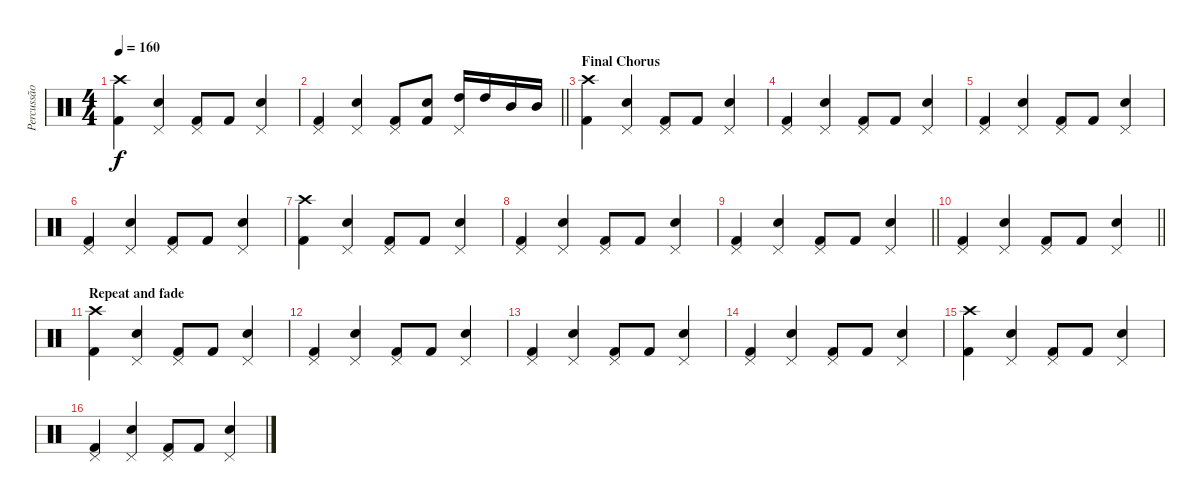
\track ("Percussão" "Percussão") {instrument percussion}
\staff {score}
\articulation defaults
\ts (4 4)
\tempo 160
\clef neutral
\ks c
("Crash high (hit)" "Kick (hit) 2").4{dy f} ("Pedal Hi-Hat (hit)" "Snare (hit) 2").4 ("Pedal Hi-Hat (hit)" "Kick (hit) 2").8 "Kick (hit) 2".8 ("Pedal Hi-Hat (hit)" "Snare (hit) 2").4 |
\barLineRight lightlight
("Pedal Hi-Hat (hit)" "Kick (hit) 2").4 ("Pedal Hi-Hat (hit)" "Snare (hit) 2").4 ("Pedal Hi-Hat (hit)" "Kick (hit) 2").8 ("Snare (hit) 2" "Kick (hit) 2").8 ("Pedal Hi-Hat (hit)" "High Tom (hit)").16 "High Tom (hit)".16 "Mid Tom (hit)".16 "Mid Tom (hit)".16 |
\section ("" "Final Chorus")
("Crash high (hit)" "Kick (hit) 2").4 ("Pedal Hi-Hat (hit)" "Snare (hit) 2").4 ("Pedal Hi-Hat (hit)" "Kick (hit) 2").8 "Kick (hit) 2".8 ("Pedal Hi-Hat (hit)" "Snare (hit) 2").4 |
("Pedal Hi-Hat (hit)" "Kick (hit) 2").4 ("Pedal Hi-Hat (hit)" "Snare (hit) 2").4 ("Pedal Hi-Hat (hit)" "Kick (hit) 2").8 "Kick (hit) 2".8 ("Pedal Hi-Hat (hit)" "Snare (hit) 2").4 |
("Pedal Hi-Hat (hit)" "Kick (hit) 2").4 ("Pedal Hi-Hat (hit)" "Snare (hit) 2").4 ("Pedal Hi-Hat (hit)" "Kick (hit) 2").8 "Kick (hit) 2".8 ("Pedal Hi-Hat (hit)" "Snare (hit) 2").4 |
("Pedal Hi-Hat (hit)" "Kick (hit) 2").4 ("Pedal Hi-Hat (hit)" "Snare (hit) 2").4 ("Pedal Hi-Hat (hit)" "Kick (hit) 2").8 "Kick (hit) 2".8 ("Pedal Hi-Hat (hit)" "Snare (hit) 2").4 |
("Crash high (hit)" "Kick (hit) 2").4 ("Pedal Hi-Hat (hit)" "Snare (hit) 2").4 ("Pedal Hi-Hat (hit)" "Kick (hit) 2").8 "Kick (hit) 2".8 ("Pedal Hi-Hat (hit)" "Snare (hit) 2").4 |
("Pedal Hi-Hat (hit)" "Kick (hit) 2").4 ("Pedal Hi-Hat (hit)" "Snare (hit) 2").4 ("Pedal Hi-Hat (hit)" "Kick (hit) 2").8 "Kick (hit) 2".8 ("Pedal Hi-Hat (hit)" "Snare (hit) 2").4 |
\barLineRight lightlight
("Pedal Hi-Hat (hit)" "Kick (hit) 2").4 ("Pedal Hi-Hat (hit)" "Snare (hit) 2").4 ("Pedal Hi-Hat (hit)" "Kick (hit) 2").8 "Kick (hit) 2".8 ("Pedal Hi-Hat (hit)" "Snare (hit) 2").4 |
\barLineRight lightlight
("Pedal Hi-Hat (hit)" "Kick (hit) 2").4 ("Pedal Hi-Hat (hit)" "Snare (hit) 2").4 ("Pedal Hi-Hat (hit)" "Kick (hit) 2").8 "Kick (hit) 2".8 ("Pedal Hi-Hat (hit)" "Snare (hit) 2").4 |
\section ("" "Repeat and fade")
("Crash high (hit)" "Kick (hit) 2").4 ("Pedal Hi-Hat (hit)" "Snare (hit) 2").4 ("Pedal Hi-Hat (hit)" "Kick (hit) 2").8 "Kick (hit) 2".8 ("Pedal Hi-Hat (hit)" "Snare (hit) 2").4 |
("Pedal Hi-Hat (hit)" "Kick (hit) 2").4 ("Pedal Hi-Hat (hit)" "Snare (hit) 2").4 ("Pedal Hi-Hat (hit)" "Kick (hit) 2").8 "Kick (hit) 2".8 ("Pedal Hi-Hat (hit)" "Snare (hit) 2").4 |
("Pedal Hi-Hat (hit)" "Kick (hit) 2").4 ("Pedal Hi-Hat (hit)" "Snare (hit) 2").4 ("Pedal Hi-Hat (hit)" "Kick (hit) 2").8 "Kick (hit) 2".8 ("Pedal Hi-Hat (hit)" "Snare (hit) 2").4 |
("Pedal Hi-Hat (hit)" "Kick (hit) 2").4 ("Pedal Hi-Hat (hit)" "Snare (hit) 2").4 ("Pedal Hi-Hat (hit)" "Kick (hit) 2").8 "Kick (hit) 2".8 ("Pedal Hi-Hat (hit)" "Snare (hit) 2").4 |
("Crash high (hit)" "Kick (hit) 2").4 ("Pedal Hi-Hat (hit)" "Snare (hit) 2").4 ("Pedal Hi-Hat (hit)" "Kick (hit) 2").8 "Kick (hit) 2".8 ("Pedal Hi-Hat (hit)" "Snare (hit) 2").4 |
("Pedal Hi-Hat (hit)" "Kick (hit) 2").4 ("Pedal Hi-Hat (hit)" "Snare (hit) 2").4 ("Pedal Hi-Hat (hit)" "Kick (hit) 2").8 "Kick (hit) 2".8 ("Pedal Hi-Hat (hit)" "Snare (hit) 2").4
